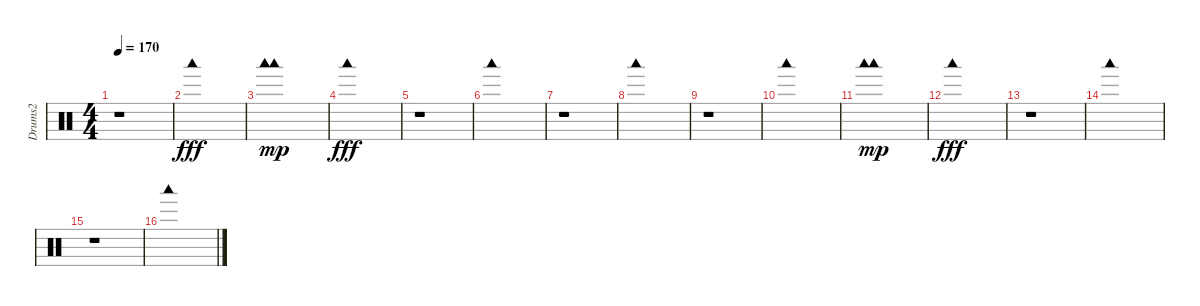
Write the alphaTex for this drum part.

\track ("Drums2" "Drums2") {instrument percussion}
\staff {score}
\articulation defaults
\ts (4 4)
\tempo 170
\clef neutral
\ks c
r.1{dy fff} |
"Woodblock low (hit)".1 |
("Woodblock low (hit)" "Woodblock low (hit)" "Woodblock low (hit)").1{dy mp} |
"Woodblock low (hit)".1{dy fff} |
r.1 |
"Woodblock low (hit)".1 |
r.1 |
"Woodblock low (hit)".1 |
r.1 |
"Woodblock low (hit)".1 |
("Woodblock low (hit)" "Woodblock low (hit)").1{dy mp} |
"Woodblock low (hit)".1{dy fff} |
r.1 |
"Woodblock low (hit)".1 |
r.1 |
"Woodblock low (hit)".1
